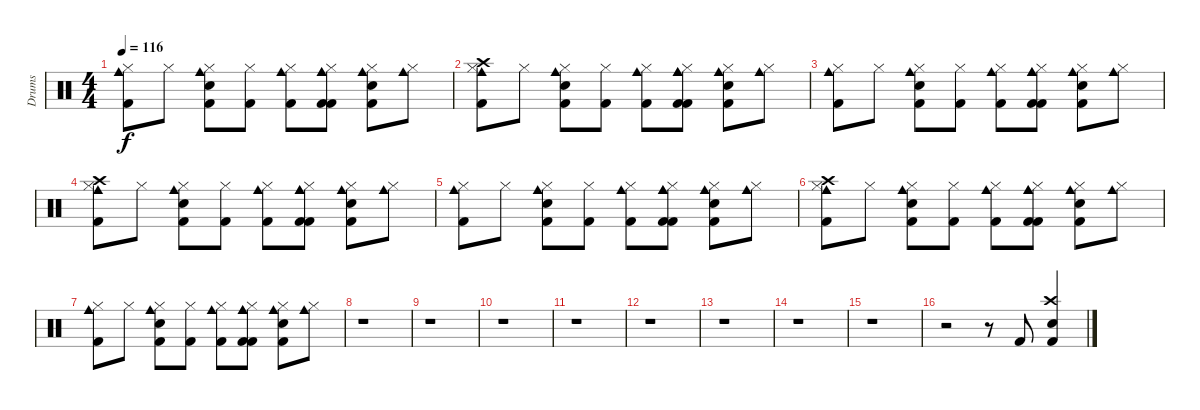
\track ("Drums" "Drums") {instrument percussion}
\staff {score}
\articulation defaults
\ts (4 4)
\tempo 116
\clef neutral
\ks c
("Kick (hit) 2" "Hi-Hat (closed)" "Cowbell medium (hit)").8{dy f} "Hi-Hat (closed)".8 ("Snare (hit) 2" "Kick (hit) 2" "Hi-Hat (closed)" "Cowbell medium (hit)").8 ("Kick (hit) 2" "Hi-Hat (closed)").8 ("Hi-Hat (closed)" "Kick (hit) 2" "Cowbell medium (hit)").8 ("Kick (hit) 2" "Hi-Hat (closed)" "Cowbell medium (hit)" "Kick (hit) 2" "Cowbell medium (hit)").8 ("Kick (hit) 2" "Snare (hit) 2" "Hi-Hat (closed)" "Cowbell medium (hit)").8 ("Hi-Hat (closed)" "Cowbell medium (hit)").8 |
("Kick (hit) 2" "Hi-Hat (closed)" "Cowbell medium (hit)" "Crash high (hit)").8 "Hi-Hat (closed)".8 ("Snare (hit) 2" "Kick (hit) 2" "Hi-Hat (closed)" "Cowbell medium (hit)").8 ("Kick (hit) 2" "Hi-Hat (closed)").8 ("Hi-Hat (closed)" "Kick (hit) 2" "Cowbell medium (hit)").8 ("Kick (hit) 2" "Hi-Hat (closed)" "Cowbell medium (hit)" "Kick (hit) 2" "Cowbell medium (hit)").8 ("Kick (hit) 2" "Snare (hit) 2" "Hi-Hat (closed)" "Cowbell medium (hit)").8 ("Hi-Hat (closed)" "Cowbell medium (hit)").8 |
("Kick (hit) 2" "Hi-Hat (closed)" "Cowbell medium (hit)").8 "Hi-Hat (closed)".8 ("Snare (hit) 2" "Kick (hit) 2" "Hi-Hat (closed)" "Cowbell medium (hit)").8 ("Kick (hit) 2" "Hi-Hat (closed)").8 ("Hi-Hat (closed)" "Kick (hit) 2" "Cowbell medium (hit)").8 ("Kick (hit) 2" "Hi-Hat (closed)" "Cowbell medium (hit)" "Kick (hit) 2" "Cowbell medium (hit)").8 ("Kick (hit) 2" "Snare (hit) 2" "Hi-Hat (closed)" "Cowbell medium (hit)").8 ("Hi-Hat (closed)" "Cowbell medium (hit)").8 |
("Kick (hit) 2" "Hi-Hat (closed)" "Crash high (hit)" "Cowbell medium (hit)").8 "Hi-Hat (closed)".8 ("Snare (hit) 2" "Kick (hit) 2" "Hi-Hat (closed)" "Cowbell medium (hit)").8 ("Kick (hit) 2" "Hi-Hat (closed)").8 ("Hi-Hat (closed)" "Kick (hit) 2" "Cowbell medium (hit)").8 ("Kick (hit) 2" "Hi-Hat (closed)" "Cowbell medium (hit)" "Kick (hit) 2" "Cowbell medium (hit)").8 ("Kick (hit) 2" "Snare (hit) 2" "Hi-Hat (closed)" "Cowbell medium (hit)").8 ("Hi-Hat (closed)" "Cowbell medium (hit)").8 |
("Kick (hit) 2" "Hi-Hat (closed)" "Cowbell medium (hit)").8 "Hi-Hat (closed)".8 ("Snare (hit) 2" "Kick (hit) 2" "Hi-Hat (closed)" "Cowbell medium (hit)").8 ("Kick (hit) 2" "Hi-Hat (closed)").8 ("Hi-Hat (closed)" "Kick (hit) 2" "Cowbell medium (hit)").8 ("Kick (hit) 2" "Hi-Hat (closed)" "Cowbell medium (hit)" "Kick (hit) 2" "Cowbell medium (hit)").8 ("Kick (hit) 2" "Snare (hit) 2" "Hi-Hat (closed)" "Cowbell medium (hit)").8 ("Hi-Hat (closed)" "Cowbell medium (hit)").8 |
("Kick (hit) 2" "Hi-Hat (closed)" "Cowbell medium (hit)" "Crash high (hit)").8 "Hi-Hat (closed)".8 ("Snare (hit) 2" "Kick (hit) 2" "Hi-Hat (closed)" "Cowbell medium (hit)").8 ("Kick (hit) 2" "Hi-Hat (closed)").8 ("Hi-Hat (closed)" "Kick (hit) 2" "Cowbell medium (hit)").8 ("Kick (hit) 2" "Hi-Hat (closed)" "Cowbell medium (hit)" "Kick (hit) 2" "Cowbell medium (hit)").8 ("Kick (hit) 2" "Snare (hit) 2" "Hi-Hat (closed)" "Cowbell medium (hit)").8 ("Hi-Hat (closed)" "Cowbell medium (hit)").8 |
("Kick (hit) 2" "Hi-Hat (closed)" "Cowbell medium (hit)").8 "Hi-Hat (closed)".8 ("Snare (hit) 2" "Kick (hit) 2" "Hi-Hat (closed)" "Cowbell medium (hit)").8 ("Kick (hit) 2" "Hi-Hat (closed)").8 ("Hi-Hat (closed)" "Kick (hit) 2" "Cowbell medium (hit)").8 ("Kick (hit) 2" "Hi-Hat (closed)" "Cowbell medium (hit)" "Kick (hit) 2" "Cowbell medium (hit)").8 ("Kick (hit) 2" "Snare (hit) 2" "Hi-Hat (closed)" "Cowbell medium (hit)").8 ("Hi-Hat (closed)" "Cowbell medium (hit)").8 |
r.1 |
r.1 |
r.1 |
r.1 |
r.1 |
r.1 |
r.1 |
r.1 |
r.2 r.8 "Kick (hit) 2".8 ("Crash high (hit)" "Electric Snare (hit)" "Kick (hit) 2").4
